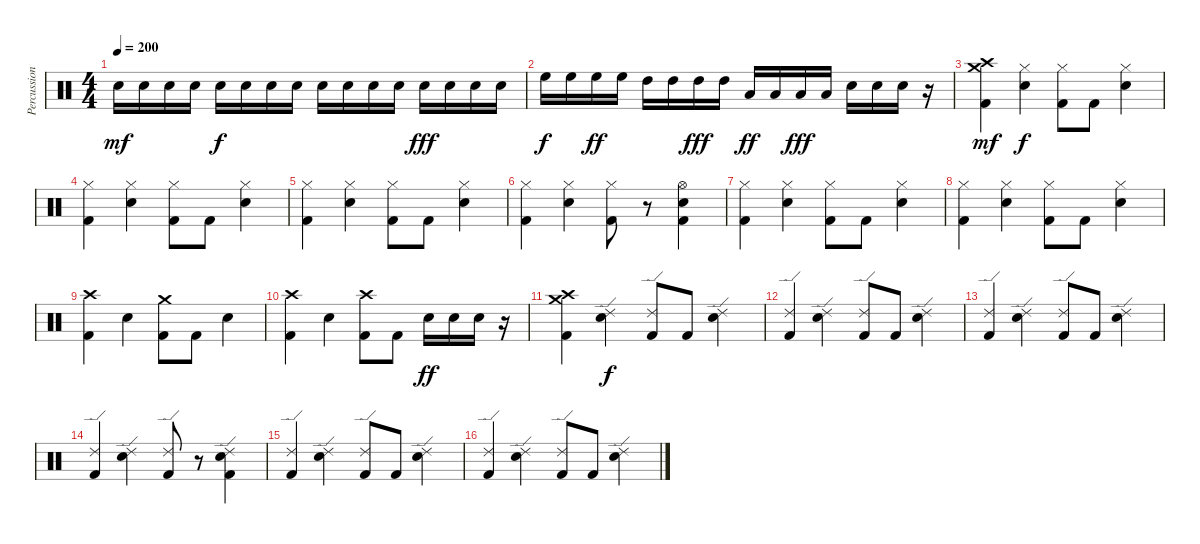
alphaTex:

\track ("Percussion" "Percussion") {instrument percussion}
\staff {score}
\articulation defaults
\ts (4 4)
\tempo 200
\clef neutral
\ks c "Snare (hit) 2".16{dy mf} "Snare (hit) 2".16 "Snare (hit) 2".16 "Snare (hit) 2".16 "Snare (hit) 2".16{dy f} "Snare (hit) 2".16 "Snare (hit) 2".16 "Snare (hit) 2".16 "Snare (hit) 2".16 "Snare (hit) 2".16 "Snare (hit) 2".16 "Snare (hit) 2".16 "Snare (hit) 2".16{dy fff} "Snare (hit) 2".16 "Snare (hit) 2".16 "Snare (hit) 2".16
|
"High Floor Tom (hit)".16{dy f} "High Floor Tom (hit)".16 "High Floor Tom (hit)".16{dy ff} "High Floor Tom (hit)".16 "High Tom (hit)".16 "High Tom (hit)".16 "High Tom (hit)".16{dy fff} "High Tom (hit)".16 "Low Tom (hit)".16{dy ff} "Low Tom (hit)".16 "Low Tom (hit)".16{dy fff} "Low Tom (hit)".16 "Snare (hit) 2".16 "Snare (hit) 2".16 "Snare (hit) 2".16 r.16 |
("Crash high (hit)" "Crash medium (hit)" "Kick (hit) 2").4{dy mf} ("Hi-Hat (closed)" "Snare (hit) 2").4{dy f} ("Hi-Hat (closed)" "Kick (hit) 2").8 "Kick (hit) 2".8 ("Hi-Hat (closed)" "Snare (hit) 2").4 |
("Hi-Hat (closed)" "Kick (hit) 2").4 ("Hi-Hat (closed)" "Snare (hit) 2").4 ("Hi-Hat (closed)" "Kick (hit) 2").8 "Kick (hit) 2".8 ("Hi-Hat (closed)" "Snare (hit) 2").4 |
("Hi-Hat (closed)" "Kick (hit) 2").4 ("Hi-Hat (closed)" "Snare (hit) 2").4 ("Hi-Hat (closed)" "Kick (hit) 2").8 "Kick (hit) 2".8 ("Hi-Hat (closed)" "Snare (hit) 2").4 |
("Hi-Hat (closed)" "Kick (hit) 2").4 ("Hi-Hat (closed)" "Snare (hit) 2").4 ("Hi-Hat (closed)" "Kick (hit) 2").8 r.8 ("Hi-Hat (open)" "Snare (hit) 2" "Kick (hit) 2").4 |
("Hi-Hat (closed)" "Kick (hit) 2").4 ("Hi-Hat (closed)" "Snare (hit) 2").4 ("Hi-Hat (closed)" "Kick (hit) 2").8 "Kick (hit) 2".8 ("Hi-Hat (closed)" "Snare (hit) 2").4 |
("Hi-Hat (closed)" "Kick (hit) 2").4 ("Hi-Hat (closed)" "Snare (hit) 2").4 ("Hi-Hat (closed)" "Kick (hit) 2").8 "Kick (hit) 2".8 ("Hi-Hat (closed)" "Snare (hit) 2").4 |
("Crash high (hit)" "Kick (hit) 2").4 "Snare (hit) 2".4 ("Crash medium (hit)" "Kick (hit) 2").8 "Kick (hit) 2".8 "Snare (hit) 2".4 |
("Crash high (hit)" "Kick (hit) 2").4 "Snare (hit) 2".4 ("Crash high (hit)" "Kick (hit) 2").8 "Kick (hit) 2".8 "Snare (hit) 2".16{dy ff} "Snare (hit) 2".16 "Snare (hit) 2".16 r.16 |
("Crash high (hit)" "Crash medium (hit)" "Kick (hit) 2").4 ("Ride (edge) 2" "Snare (hit) 2").4{dy f} ("Ride (edge) 2" "Kick (hit) 2").8 "Kick (hit) 2".8 ("Ride (edge) 2" "Snare (hit) 2").4 |
("Ride (edge) 2" "Kick (hit) 2").4 ("Ride (edge) 2" "Snare (hit) 2").4 ("Ride (edge) 2" "Kick (hit) 2").8 "Kick (hit) 2".8 ("Ride (edge) 2" "Snare (hit) 2").4 |
("Ride (edge) 2" "Kick (hit) 2").4 ("Ride (edge) 2" "Snare (hit) 2").4 ("Ride (edge) 2" "Kick (hit) 2").8 "Kick (hit) 2".8 ("Ride (edge) 2" "Snare (hit) 2").4 |
("Ride (edge) 2" "Kick (hit) 2").4 ("Ride (edge) 2" "Snare (hit) 2").4 ("Ride (edge) 2" "Kick (hit) 2").8 r.8 ("Ride (edge) 2" "Snare (hit) 2" "Kick (hit) 2").4 |
("Ride (edge) 2" "Kick (hit) 2").4 ("Ride (edge) 2" "Snare (hit) 2").4 ("Ride (edge) 2" "Kick (hit) 2").8 "Kick (hit) 2".8 ("Ride (edge) 2" "Snare (hit) 2").4 |
("Ride (edge) 2" "Kick (hit) 2").4 ("Ride (edge) 2" "Snare (hit) 2").4 ("Ride (edge) 2" "Kick (hit) 2").8 "Kick (hit) 2".8 ("Ride (edge) 2" "Snare (hit) 2").4
